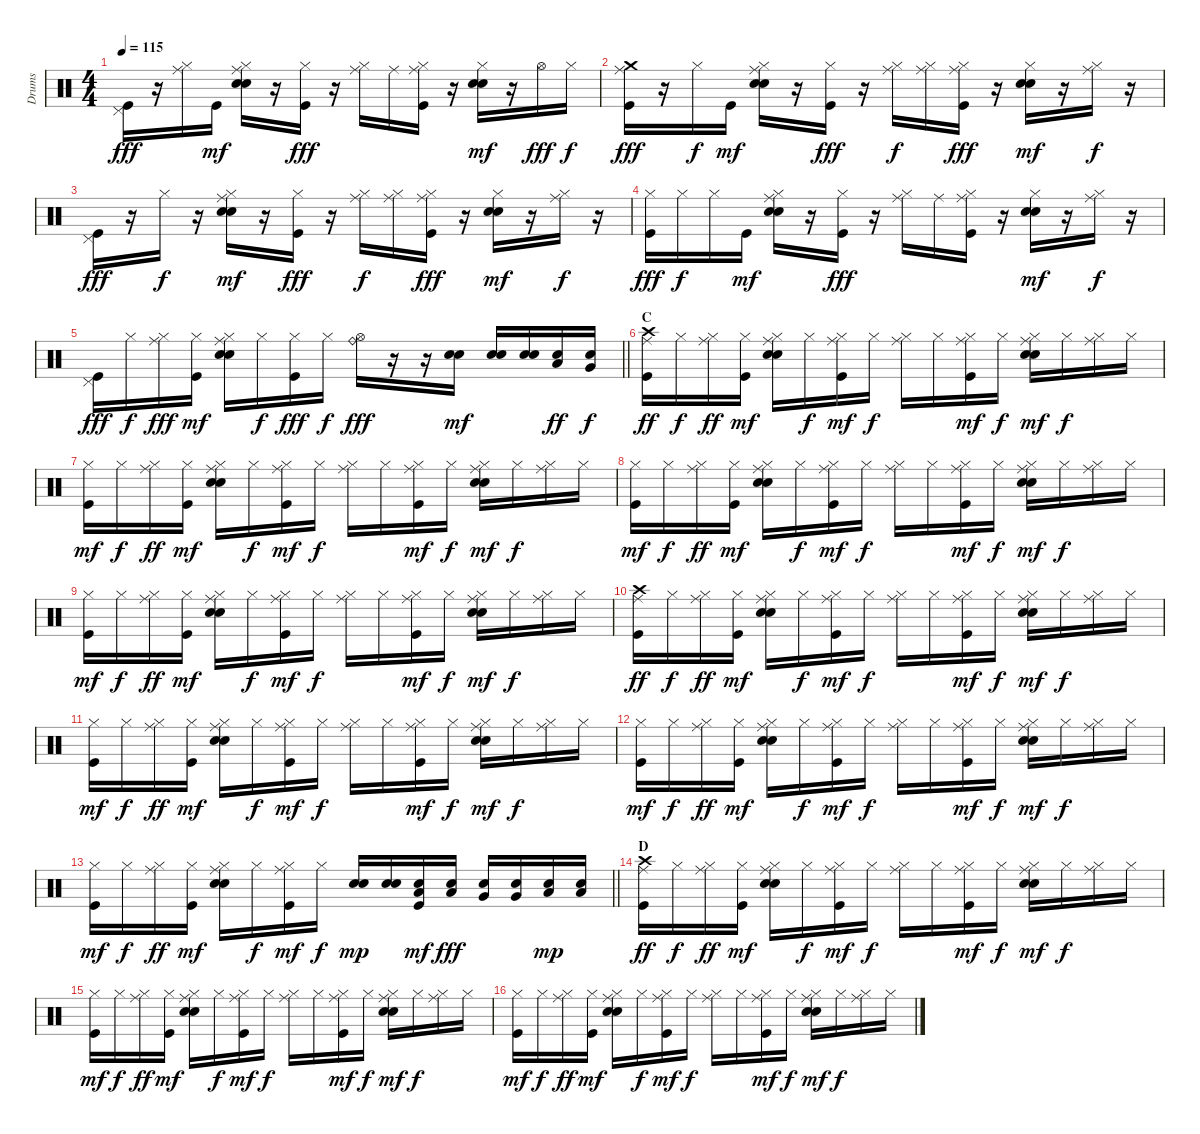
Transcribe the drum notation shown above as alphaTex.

\track ("Drums" "Drums") {instrument percussion}
\staff {score}
\articulation defaults
\ts (4 4)
\tempo 115
\clef neutral
\ks c
("Pedal Hi-Hat (hit)" "Kick (hit)").16{dy fff} r.16 ("Hi-Hat (closed)" "Ride (middle)").16 "Kick (hit)".16{dy mf} ("Hi-Hat (closed)" "Ride (middle)" "Electric Snare (hit)" "Snare (hit) 2").16 r.16 ("Hi-Hat (closed)" "Kick (hit)").16{dy fff} r.16 ("Hi-Hat (closed)" "Ride (middle)").16 "Ride (middle)".16 ("Hi-Hat (closed)" "Ride (middle)" "Kick (hit)").16 r.16 ("Hi-Hat (closed)" "Electric Snare (hit)" "Snare (hit) 2").16{dy mf} r.16 "Hi-Hat (open)".16{dy fff} "Hi-Hat (closed)".16{dy f} |
("Crash medium (hit)" "Ride (middle)" "Kick (hit)").16{dy fff} r.16 "Hi-Hat (closed)".16{dy f} "Kick (hit)".16{dy mf} ("Hi-Hat (closed)" "Ride (middle)" "Electric Snare (hit)" "Snare (hit) 2").16 r.16 ("Hi-Hat (closed)" "Kick (hit)").16{dy fff} r.16 ("Hi-Hat (closed)" "Ride (middle)").16{dy f} ("Hi-Hat (closed)" "Ride (middle)").16 ("Hi-Hat (closed)" "Ride (middle)" "Kick (hit)").16{dy fff} r.16 ("Hi-Hat (closed)" "Electric Snare (hit)" "Snare (hit) 2").16{dy mf} r.16 ("Hi-Hat (closed)" "Ride (middle)").16{dy f} r.16 |
("Pedal Hi-Hat (hit)" "Kick (hit)").16{dy fff} r.16 "Hi-Hat (closed)".16{dy f} r.16 ("Hi-Hat (closed)" "Ride (middle)" "Electric Snare (hit)" "Snare (hit) 2").16{dy mf} r.16 ("Hi-Hat (closed)" "Kick (hit)").16{dy fff} r.16 ("Hi-Hat (closed)" "Ride (middle)").16{dy f} ("Hi-Hat (closed)" "Ride (middle)").16 ("Hi-Hat (closed)" "Ride (middle)" "Kick (hit)").16{dy fff} r.16 ("Hi-Hat (closed)" "Electric Snare (hit)" "Snare (hit) 2").16{dy mf} r.16 ("Hi-Hat (closed)" "Ride (middle)").16{dy f} r.16 |
("Hi-Hat (closed)" "Kick (hit)").16{dy fff} "Hi-Hat (closed)".16{dy f} "Hi-Hat (closed)".16 "Kick (hit)".16{dy mf} ("Hi-Hat (closed)" "Ride (middle)" "Electric Snare (hit)" "Snare (hit) 2").16 r.16 ("Hi-Hat (closed)" "Kick (hit)").16{dy fff} r.16 ("Hi-Hat (closed)" "Ride (middle)").16 "Ride (middle)".16 ("Hi-Hat (closed)" "Ride (middle)" "Kick (hit)").16 r.16 ("Hi-Hat (closed)" "Electric Snare (hit)" "Snare (hit) 2").16{dy mf} r.16 ("Hi-Hat (closed)" "Ride (middle)").16{dy f} r.16 |
\barLineRight lightlight
("Pedal Hi-Hat (hit)" "Kick (hit)").16{dy fff} "Hi-Hat (closed)".16{dy f} ("Hi-Hat (closed)" "Ride (middle)").16{dy fff} ("Hi-Hat (closed)" "Kick (hit)").16{dy mf} ("Hi-Hat (closed)" "Ride (middle)" "Electric Snare (hit)" "Snare (hit) 2").16 "Hi-Hat (closed)".16{dy f} ("Hi-Hat (closed)" "Kick (hit)").16{dy fff} "Hi-Hat (closed)".16{dy f} ("Hi-Hat (open)" "Ride (bell)").16{dy fff} r.16 r.16 ("Electric Snare (hit)" "Snare (hit) 2").16{dy mf} ("Electric Snare (hit)" "Snare (hit) 2").16 ("Electric Snare (hit)" "Snare (hit) 2").16 ("Electric Snare (hit)" "Low Tom (hit)").16{dy ff} ("Electric Snare (hit)" "Very Low Tom (hit)").16{dy f} |
\section ("" "C")
("Crash high (hit)" "Ride (middle)" "Kick (hit)").16{dy ff} "Hi-Hat (closed)".16{dy f} ("Hi-Hat (closed)" "Ride (middle)").16{dy ff} ("Hi-Hat (closed)" "Kick (hit)").16{dy mf} ("Hi-Hat (closed)" "Ride (middle)" "Electric Snare (hit)" "Snare (hit) 2").16 "Hi-Hat (closed)".16{dy f} ("Hi-Hat (closed)" "Ride (middle)" "Kick (hit)").16{dy mf} "Hi-Hat (closed)".16{dy f} ("Hi-Hat (closed)" "Ride (middle)").16 "Hi-Hat (closed)".16 ("Hi-Hat (closed)" "Ride (middle)" "Kick (hit)").16{dy mf} "Hi-Hat (closed)".16{dy f} ("Hi-Hat (closed)" "Ride (middle)" "Electric Snare (hit)" "Snare (hit) 2").16{dy mf} "Hi-Hat (closed)".16{dy f} ("Hi-Hat (closed)" "Ride (middle)").16 "Hi-Hat (closed)".16 |
("Hi-Hat (closed)" "Kick (hit)").16{dy mf} "Hi-Hat (closed)".16{dy f} ("Hi-Hat (closed)" "Ride (middle)").16{dy ff} ("Hi-Hat (closed)" "Kick (hit)").16{dy mf} ("Hi-Hat (closed)" "Ride (middle)" "Electric Snare (hit)" "Snare (hit) 2").16 "Hi-Hat (closed)".16{dy f} ("Hi-Hat (closed)" "Ride (middle)" "Kick (hit)").16{dy mf} "Hi-Hat (closed)".16{dy f} ("Hi-Hat (closed)" "Ride (middle)").16 "Hi-Hat (closed)".16 ("Hi-Hat (closed)" "Ride (middle)" "Kick (hit)").16{dy mf} "Hi-Hat (closed)".16{dy f} ("Hi-Hat (closed)" "Ride (middle)" "Electric Snare (hit)" "Snare (hit) 2").16{dy mf} "Hi-Hat (closed)".16{dy f} ("Hi-Hat (closed)" "Ride (middle)").16 "Hi-Hat (closed)".16 |
("Hi-Hat (closed)" "Kick (hit)").16{dy mf} "Hi-Hat (closed)".16{dy f} ("Hi-Hat (closed)" "Ride (middle)").16{dy ff} ("Hi-Hat (closed)" "Kick (hit)").16{dy mf} ("Hi-Hat (closed)" "Ride (middle)" "Electric Snare (hit)" "Snare (hit) 2").16 "Hi-Hat (closed)".16{dy f} ("Hi-Hat (closed)" "Ride (middle)" "Kick (hit)").16{dy mf} "Hi-Hat (closed)".16{dy f} ("Hi-Hat (closed)" "Ride (middle)").16 "Hi-Hat (closed)".16 ("Hi-Hat (closed)" "Ride (middle)" "Kick (hit)").16{dy mf} "Hi-Hat (closed)".16{dy f} ("Hi-Hat (closed)" "Ride (middle)" "Electric Snare (hit)" "Snare (hit) 2").16{dy mf} "Hi-Hat (closed)".16{dy f} ("Hi-Hat (closed)" "Ride (middle)").16 "Hi-Hat (closed)".16 |
("Hi-Hat (closed)" "Kick (hit)").16{dy mf} "Hi-Hat (closed)".16{dy f} ("Hi-Hat (closed)" "Ride (middle)").16{dy ff} ("Hi-Hat (closed)" "Kick (hit)").16{dy mf} ("Hi-Hat (closed)" "Ride (middle)" "Electric Snare (hit)" "Snare (hit) 2").16 "Hi-Hat (closed)".16{dy f} ("Hi-Hat (closed)" "Ride (middle)" "Kick (hit)").16{dy mf} "Hi-Hat (closed)".16{dy f} ("Hi-Hat (closed)" "Ride (middle)").16 "Hi-Hat (closed)".16 ("Hi-Hat (closed)" "Ride (middle)" "Kick (hit)").16{dy mf} "Hi-Hat (closed)".16{dy f} ("Hi-Hat (closed)" "Ride (middle)" "Electric Snare (hit)" "Snare (hit) 2").16{dy mf} "Hi-Hat (closed)".16{dy f} ("Hi-Hat (closed)" "Ride (middle)").16 "Hi-Hat (closed)".16 |
("Crash high (hit)" "Ride (middle)" "Kick (hit)").16{dy ff} "Hi-Hat (closed)".16{dy f} ("Hi-Hat (closed)" "Ride (middle)").16{dy ff} ("Hi-Hat (closed)" "Kick (hit)").16{dy mf} ("Hi-Hat (closed)" "Ride (middle)" "Electric Snare (hit)" "Snare (hit) 2").16 "Hi-Hat (closed)".16{dy f} ("Hi-Hat (closed)" "Ride (middle)" "Kick (hit)").16{dy mf} "Hi-Hat (closed)".16{dy f} ("Hi-Hat (closed)" "Ride (middle)").16 "Hi-Hat (closed)".16 ("Hi-Hat (closed)" "Ride (middle)" "Kick (hit)").16{dy mf} "Hi-Hat (closed)".16{dy f} ("Hi-Hat (closed)" "Ride (middle)" "Electric Snare (hit)" "Snare (hit) 2").16{dy mf} "Hi-Hat (closed)".16{dy f} ("Hi-Hat (closed)" "Ride (middle)").16 "Hi-Hat (closed)".16 |
("Hi-Hat (closed)" "Kick (hit)").16{dy mf} "Hi-Hat (closed)".16{dy f} ("Hi-Hat (closed)" "Ride (middle)").16{dy ff} ("Hi-Hat (closed)" "Kick (hit)").16{dy mf} ("Hi-Hat (closed)" "Ride (middle)" "Electric Snare (hit)" "Snare (hit) 2").16 "Hi-Hat (closed)".16{dy f} ("Hi-Hat (closed)" "Ride (middle)" "Kick (hit)").16{dy mf} "Hi-Hat (closed)".16{dy f} ("Hi-Hat (closed)" "Ride (middle)").16 "Hi-Hat (closed)".16 ("Hi-Hat (closed)" "Ride (middle)" "Kick (hit)").16{dy mf} "Hi-Hat (closed)".16{dy f} ("Hi-Hat (closed)" "Ride (middle)" "Electric Snare (hit)" "Snare (hit) 2").16{dy mf} "Hi-Hat (closed)".16{dy f} ("Hi-Hat (closed)" "Ride (middle)").16 "Hi-Hat (closed)".16 |
("Hi-Hat (closed)" "Kick (hit)").16{dy mf} "Hi-Hat (closed)".16{dy f} ("Hi-Hat (closed)" "Ride (middle)").16{dy ff} ("Hi-Hat (closed)" "Kick (hit)").16{dy mf} ("Hi-Hat (closed)" "Ride (middle)" "Electric Snare (hit)" "Snare (hit) 2").16 "Hi-Hat (closed)".16{dy f} ("Hi-Hat (closed)" "Ride (middle)" "Kick (hit)").16{dy mf} "Hi-Hat (closed)".16{dy f} ("Hi-Hat (closed)" "Ride (middle)").16 "Hi-Hat (closed)".16 ("Hi-Hat (closed)" "Ride (middle)" "Kick (hit)").16{dy mf} "Hi-Hat (closed)".16{dy f} ("Hi-Hat (closed)" "Ride (middle)" "Electric Snare (hit)" "Snare (hit) 2").16{dy mf} "Hi-Hat (closed)".16{dy f} ("Hi-Hat (closed)" "Ride (middle)").16 "Hi-Hat (closed)".16 |
\barLineRight lightlight
("Hi-Hat (closed)" "Kick (hit)").16{dy mf} "Hi-Hat (closed)".16{dy f} ("Hi-Hat (closed)" "Ride (middle)").16{dy ff} ("Hi-Hat (closed)" "Kick (hit)").16{dy mf} ("Hi-Hat (closed)" "Ride (middle)" "Electric Snare (hit)" "Snare (hit) 2").16 "Hi-Hat (closed)".16{dy f} ("Hi-Hat (closed)" "Ride (middle)" "Kick (hit)").16{dy mf} "Hi-Hat (closed)".16{dy f} ("Electric Snare (hit)" "Snare (hit) 2").16{dy mp} ("Electric Snare (hit)" "Snare (hit) 2").16 ("Electric Snare (hit)" "Low Tom (hit)" "Kick (hit)").16{dy mf} ("Electric Snare (hit)" "Low Tom (hit)").16{dy fff} ("Electric Snare (hit)" "Very Low Tom (hit)").16 ("Electric Snare (hit)" "Very Low Tom (hit)").16 ("Electric Snare (hit)" "Low Floor Tom (hit)").16{dy mp} ("Electric Snare (hit)" "Low Floor Tom (hit)").16 |
\section ("" "D")
("Crash high (hit)" "Ride (middle)" "Kick (hit)").16{dy ff} "Hi-Hat (closed)".16{dy f} ("Hi-Hat (closed)" "Ride (middle)").16{dy ff} ("Hi-Hat (closed)" "Kick (hit)").16{dy mf} ("Hi-Hat (closed)" "Ride (middle)" "Electric Snare (hit)" "Snare (hit) 2").16 "Hi-Hat (closed)".16{dy f} ("Hi-Hat (closed)" "Ride (middle)" "Kick (hit)").16{dy mf} "Hi-Hat (closed)".16{dy f} ("Hi-Hat (closed)" "Ride (middle)").16 "Hi-Hat (closed)".16 ("Hi-Hat (closed)" "Ride (middle)" "Kick (hit)").16{dy mf} "Hi-Hat (closed)".16{dy f} ("Hi-Hat (closed)" "Ride (middle)" "Electric Snare (hit)" "Snare (hit) 2").16{dy mf} "Hi-Hat (closed)".16{dy f} ("Hi-Hat (closed)" "Ride (middle)").16 "Hi-Hat (closed)".16 |
("Hi-Hat (closed)" "Kick (hit)").16{dy mf} "Hi-Hat (closed)".16{dy f} ("Hi-Hat (closed)" "Ride (middle)").16{dy ff} ("Hi-Hat (closed)" "Kick (hit)").16{dy mf} ("Hi-Hat (closed)" "Ride (middle)" "Electric Snare (hit)" "Snare (hit) 2").16 "Hi-Hat (closed)".16{dy f} ("Hi-Hat (closed)" "Ride (middle)" "Kick (hit)").16{dy mf} "Hi-Hat (closed)".16{dy f} ("Hi-Hat (closed)" "Ride (middle)").16 "Hi-Hat (closed)".16 ("Hi-Hat (closed)" "Ride (middle)" "Kick (hit)").16{dy mf} "Hi-Hat (closed)".16{dy f} ("Hi-Hat (closed)" "Ride (middle)" "Electric Snare (hit)" "Snare (hit) 2").16{dy mf} "Hi-Hat (closed)".16{dy f} ("Hi-Hat (closed)" "Ride (middle)").16 "Hi-Hat (closed)".16 |
("Hi-Hat (closed)" "Kick (hit)").16{dy mf} "Hi-Hat (closed)".16{dy f} ("Hi-Hat (closed)" "Ride (middle)").16{dy ff} ("Hi-Hat (closed)" "Kick (hit)").16{dy mf} ("Hi-Hat (closed)" "Ride (middle)" "Electric Snare (hit)" "Snare (hit) 2").16 "Hi-Hat (closed)".16{dy f} ("Hi-Hat (closed)" "Ride (middle)" "Kick (hit)").16{dy mf} "Hi-Hat (closed)".16{dy f} ("Hi-Hat (closed)" "Ride (middle)").16 "Hi-Hat (closed)".16 ("Hi-Hat (closed)" "Ride (middle)" "Kick (hit)").16{dy mf} "Hi-Hat (closed)".16{dy f} ("Hi-Hat (closed)" "Ride (middle)" "Electric Snare (hit)" "Snare (hit) 2").16{dy mf} "Hi-Hat (closed)".16{dy f} ("Hi-Hat (closed)" "Ride (middle)").16 "Hi-Hat (closed)".16
